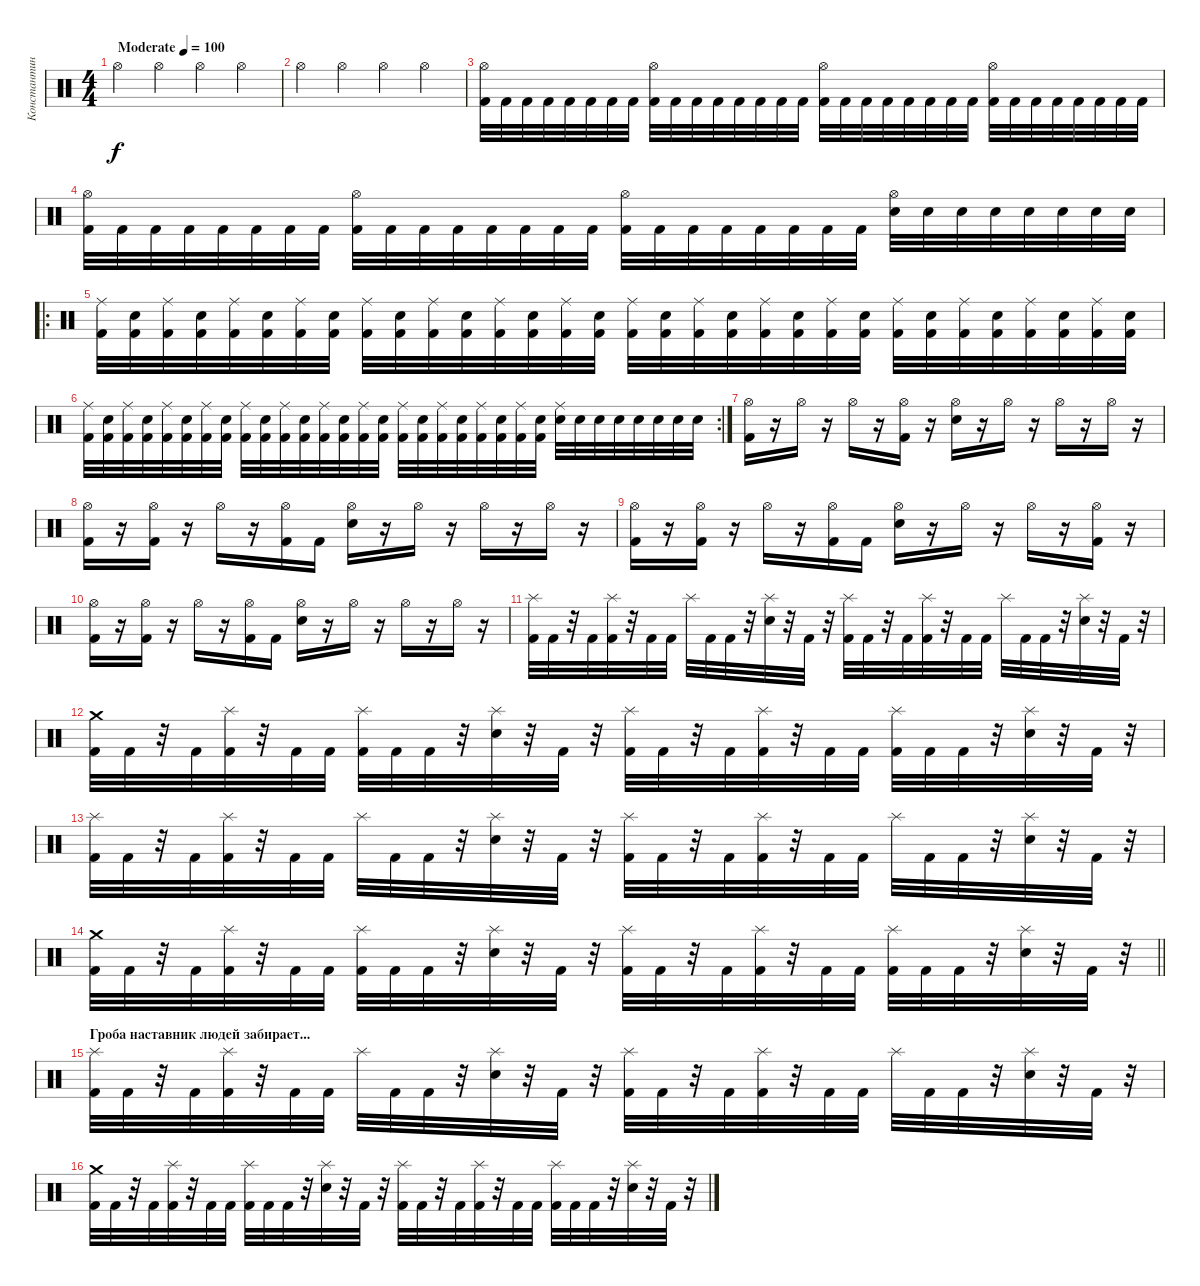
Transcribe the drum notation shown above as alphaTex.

\track ("Константин \"Салян\" Сальников" "Константин") {instrument percussion}
\staff {score}
\articulation defaults
\ts (4 4)
\tempo (100 "Moderate")
\clef neutral
\ks c "Hi-Hat (open)".4{dy f} "Hi-Hat (open)".4 "Hi-Hat (open)".4 "Hi-Hat (open)".4
|
"Hi-Hat (open)".4 "Hi-Hat (open)".4 "Hi-Hat (open)".4 "Hi-Hat (open)".4 |
("Hi-Hat (open)" "Kick (hit) 2").32 "Kick (hit) 2".32 "Kick (hit) 2".32 "Kick (hit) 2".32 "Kick (hit) 2".32 "Kick (hit) 2".32 "Kick (hit) 2".32 "Kick (hit) 2".32 ("Hi-Hat (open)" "Kick (hit) 2").32 "Kick (hit) 2".32 "Kick (hit) 2".32 "Kick (hit) 2".32 "Kick (hit) 2".32 "Kick (hit) 2".32 "Kick (hit) 2".32 "Kick (hit) 2".32 ("Hi-Hat (open)" "Kick (hit) 2").32 "Kick (hit) 2".32 "Kick (hit) 2".32 "Kick (hit) 2".32 "Kick (hit) 2".32 "Kick (hit) 2".32 "Kick (hit) 2".32 "Kick (hit) 2".32 ("Hi-Hat (open)" "Kick (hit) 2").32 "Kick (hit) 2".32 "Kick (hit) 2".32 "Kick (hit) 2".32 "Kick (hit) 2".32 "Kick (hit) 2".32 "Kick (hit) 2".32 "Kick (hit) 2".32 |
("Hi-Hat (open)" "Kick (hit) 2").32 "Kick (hit) 2".32 "Kick (hit) 2".32 "Kick (hit) 2".32 "Kick (hit) 2".32 "Kick (hit) 2".32 "Kick (hit) 2".32 "Kick (hit) 2".32 ("Hi-Hat (open)" "Kick (hit) 2").32 "Kick (hit) 2".32 "Kick (hit) 2".32 "Kick (hit) 2".32 "Kick (hit) 2".32 "Kick (hit) 2".32 "Kick (hit) 2".32 "Kick (hit) 2".32 ("Hi-Hat (open)" "Kick (hit) 2").32 "Kick (hit) 2".32 "Kick (hit) 2".32 "Kick (hit) 2".32 "Kick (hit) 2".32 "Kick (hit) 2".32 "Kick (hit) 2".32 "Kick (hit) 2".32 ("Hi-Hat (open)" "Electric Snare (hit)").32 "Electric Snare (hit)".32 "Electric Snare (hit)".32 "Electric Snare (hit)".32 "Electric Snare (hit)".32 "Electric Snare (hit)".32 "Electric Snare (hit)".32 "Electric Snare (hit)".32 |
\ro
("Ride (middle)" "Kick (hit) 2").32 ("Electric Snare (hit)" "Kick (hit) 2").32 ("Ride (middle)" "Kick (hit) 2").32 ("Electric Snare (hit)" "Kick (hit) 2").32 ("Ride (middle)" "Kick (hit) 2").32 ("Electric Snare (hit)" "Kick (hit) 2").32 ("Ride (middle)" "Kick (hit) 2").32 ("Electric Snare (hit)" "Kick (hit) 2").32 ("Ride (middle)" "Kick (hit) 2").32 ("Electric Snare (hit)" "Kick (hit) 2").32 ("Ride (middle)" "Kick (hit) 2").32 ("Electric Snare (hit)" "Kick (hit) 2").32 ("Ride (middle)" "Kick (hit) 2").32 ("Electric Snare (hit)" "Kick (hit) 2").32 ("Ride (middle)" "Kick (hit) 2").32 ("Electric Snare (hit)" "Kick (hit) 2").32 ("Ride (middle)" "Kick (hit) 2").32 ("Electric Snare (hit)" "Kick (hit) 2").32 ("Ride (middle)" "Kick (hit) 2").32 ("Electric Snare (hit)" "Kick (hit) 2").32 ("Ride (middle)" "Kick (hit) 2").32 ("Electric Snare (hit)" "Kick (hit) 2").32 ("Ride (middle)" "Kick (hit) 2").32 ("Electric Snare (hit)" "Kick (hit) 2").32 ("Ride (middle)" "Kick (hit) 2").32 ("Electric Snare (hit)" "Kick (hit) 2").32 ("Ride (middle)" "Kick (hit) 2").32 ("Electric Snare (hit)" "Kick (hit) 2").32 ("Ride (middle)" "Kick (hit) 2").32 ("Electric Snare (hit)" "Kick (hit) 2").32 ("Ride (middle)" "Kick (hit) 2").32 ("Electric Snare (hit)" "Kick (hit) 2").32 |
\rc 2
("Ride (middle)" "Kick (hit) 2").32 ("Electric Snare (hit)" "Kick (hit) 2").32 ("Ride (middle)" "Kick (hit) 2").32 ("Electric Snare (hit)" "Kick (hit) 2").32 ("Ride (middle)" "Kick (hit) 2").32 ("Electric Snare (hit)" "Kick (hit) 2").32 ("Ride (middle)" "Kick (hit) 2").32 ("Electric Snare (hit)" "Kick (hit) 2").32 ("Ride (middle)" "Kick (hit) 2").32 ("Electric Snare (hit)" "Kick (hit) 2").32 ("Ride (middle)" "Kick (hit) 2").32 ("Electric Snare (hit)" "Kick (hit) 2").32 ("Ride (middle)" "Kick (hit) 2").32 ("Electric Snare (hit)" "Kick (hit) 2").32 ("Ride (middle)" "Kick (hit) 2").32 ("Electric Snare (hit)" "Kick (hit) 2").32 ("Ride (middle)" "Kick (hit) 2").32 ("Electric Snare (hit)" "Kick (hit) 2").32 ("Ride (middle)" "Kick (hit) 2").32 ("Electric Snare (hit)" "Kick (hit) 2").32 ("Ride (middle)" "Kick (hit) 2").32 ("Electric Snare (hit)" "Kick (hit) 2").32 ("Ride (middle)" "Kick (hit) 2").32 ("Electric Snare (hit)" "Kick (hit) 2").32 ("Ride (middle)" "Electric Snare (hit)").32 "Electric Snare (hit)".32 "Electric Snare (hit)".32 "Electric Snare (hit)".32 "Electric Snare (hit)".32 "Electric Snare (hit)".32 "Electric Snare (hit)".32 "Electric Snare (hit)".32 |
("Hi-Hat (open)" "Kick (hit) 2").16 r.16 "Hi-Hat (open)".16 r.16 "Hi-Hat (open)".16 r.16 ("Hi-Hat (open)" "Kick (hit) 2").16 r.16 ("Hi-Hat (open)" "Electric Snare (hit)").16 r.16 "Hi-Hat (open)".16 r.16 "Hi-Hat (open)".16 r.16 "Hi-Hat (open)".16 r.16 |
("Hi-Hat (open)" "Kick (hit) 2").16 r.16 ("Hi-Hat (open)" "Kick (hit) 2").16 r.16 "Hi-Hat (open)".16 r.16 ("Hi-Hat (open)" "Kick (hit) 2").16 "Kick (hit) 2".16 ("Hi-Hat (open)" "Electric Snare (hit)").16 r.16 "Hi-Hat (open)".16 r.16 "Hi-Hat (open)".16 r.16 "Hi-Hat (open)".16 r.16 |
("Hi-Hat (open)" "Kick (hit) 2").16 r.16 ("Hi-Hat (open)" "Kick (hit) 2").16 r.16 "Hi-Hat (open)".16 r.16 ("Hi-Hat (open)" "Kick (hit) 2").16 "Kick (hit) 2".16 ("Hi-Hat (open)" "Electric Snare (hit)").16 r.16 "Hi-Hat (open)".16 r.16 "Hi-Hat (open)".16 r.16 ("Hi-Hat (open)" "Kick (hit) 2").16 r.16 |
("Hi-Hat (open)" "Kick (hit) 2").16 r.16 ("Hi-Hat (open)" "Kick (hit) 2").16 r.16 "Hi-Hat (open)".16 r.16 ("Hi-Hat (open)" "Kick (hit) 2").16 "Kick (hit) 2".16 ("Hi-Hat (open)" "Electric Snare (hit)").16 r.16 "Hi-Hat (open)".16 r.16 "Hi-Hat (open)".16 r.16 "Hi-Hat (open)".16 r.16 |
("Splash (hit)" "Kick (hit) 2").32 "Kick (hit) 2".32 r.32 "Kick (hit) 2".32 ("Splash (hit)" "Kick (hit) 2").32 r.32 "Kick (hit) 2".32 "Kick (hit) 2".32 "Splash (hit)".32 "Kick (hit) 2".32 "Kick (hit) 2".32 r.32 ("Splash (hit)" "Electric Snare (hit)").32 r.32 "Kick (hit) 2".32 r.32 ("Splash (hit)" "Kick (hit) 2").32 "Kick (hit) 2".32 r.32 "Kick (hit) 2".32 ("Splash (hit)" "Kick (hit) 2").32 r.32 "Kick (hit) 2".32 "Kick (hit) 2".32 "Splash (hit)".32 "Kick (hit) 2".32 "Kick (hit) 2".32 r.32 ("Splash (hit)" "Electric Snare (hit)").32 r.32 "Kick (hit) 2".32 r.32 |
("Crash medium (hit)" "Kick (hit) 2").32 "Kick (hit) 2".32 r.32 "Kick (hit) 2".32 ("Splash (hit)" "Kick (hit) 2").32 r.32 "Kick (hit) 2".32 "Kick (hit) 2".32 ("Splash (hit)" "Kick (hit) 2").32 "Kick (hit) 2".32 "Kick (hit) 2".32 r.32 ("Splash (hit)" "Electric Snare (hit)").32 r.32 "Kick (hit) 2".32 r.32 ("Splash (hit)" "Kick (hit) 2").32 "Kick (hit) 2".32 r.32 "Kick (hit) 2".32 ("Splash (hit)" "Kick (hit) 2").32 r.32 "Kick (hit) 2".32 "Kick (hit) 2".32 ("Splash (hit)" "Kick (hit) 2").32 "Kick (hit) 2".32 "Kick (hit) 2".32 r.32 ("Splash (hit)" "Electric Snare (hit)").32 r.32 "Kick (hit) 2".32 r.32 |
("Splash (hit)" "Kick (hit) 2").32 "Kick (hit) 2".32 r.32 "Kick (hit) 2".32 ("Splash (hit)" "Kick (hit) 2").32 r.32 "Kick (hit) 2".32 "Kick (hit) 2".32 "Splash (hit)".32 "Kick (hit) 2".32 "Kick (hit) 2".32 r.32 ("Splash (hit)" "Electric Snare (hit)").32 r.32 "Kick (hit) 2".32 r.32 ("Splash (hit)" "Kick (hit) 2").32 "Kick (hit) 2".32 r.32 "Kick (hit) 2".32 ("Splash (hit)" "Kick (hit) 2").32 r.32 "Kick (hit) 2".32 "Kick (hit) 2".32 "Splash (hit)".32 "Kick (hit) 2".32 "Kick (hit) 2".32 r.32 ("Splash (hit)" "Electric Snare (hit)").32 r.32 "Kick (hit) 2".32 r.32 |
\barLineRight lightlight
("Crash medium (hit)" "Kick (hit) 2").32 "Kick (hit) 2".32 r.32 "Kick (hit) 2".32 ("Splash (hit)" "Kick (hit) 2").32 r.32 "Kick (hit) 2".32 "Kick (hit) 2".32 ("Splash (hit)" "Kick (hit) 2").32 "Kick (hit) 2".32 "Kick (hit) 2".32 r.32 ("Splash (hit)" "Electric Snare (hit)").32 r.32 "Kick (hit) 2".32 r.32 ("Splash (hit)" "Kick (hit) 2").32 "Kick (hit) 2".32 r.32 "Kick (hit) 2".32 ("Splash (hit)" "Kick (hit) 2").32 r.32 "Kick (hit) 2".32 "Kick (hit) 2".32 ("Splash (hit)" "Kick (hit) 2").32 "Kick (hit) 2".32 "Kick (hit) 2".32 r.32 ("Splash (hit)" "Electric Snare (hit)").32 r.32 "Kick (hit) 2".32 r.32 |
\section ("" "Гроба наставник людей забирает...")
("Splash (hit)" "Kick (hit) 2").32 "Kick (hit) 2".32 r.32 "Kick (hit) 2".32 ("Splash (hit)" "Kick (hit) 2").32 r.32 "Kick (hit) 2".32 "Kick (hit) 2".32 "Splash (hit)".32 "Kick (hit) 2".32 "Kick (hit) 2".32 r.32 ("Splash (hit)" "Electric Snare (hit)").32 r.32 "Kick (hit) 2".32 r.32 ("Splash (hit)" "Kick (hit) 2").32 "Kick (hit) 2".32 r.32 "Kick (hit) 2".32 ("Splash (hit)" "Kick (hit) 2").32 r.32 "Kick (hit) 2".32 "Kick (hit) 2".32 "Splash (hit)".32 "Kick (hit) 2".32 "Kick (hit) 2".32 r.32 ("Splash (hit)" "Electric Snare (hit)").32 r.32 "Kick (hit) 2".32 r.32 |
("Crash medium (hit)" "Kick (hit) 2").32 "Kick (hit) 2".32 r.32 "Kick (hit) 2".32 ("Splash (hit)" "Kick (hit) 2").32 r.32 "Kick (hit) 2".32 "Kick (hit) 2".32 ("Splash (hit)" "Kick (hit) 2").32 "Kick (hit) 2".32 "Kick (hit) 2".32 r.32 ("Splash (hit)" "Electric Snare (hit)").32 r.32 "Kick (hit) 2".32 r.32 ("Splash (hit)" "Kick (hit) 2").32 "Kick (hit) 2".32 r.32 "Kick (hit) 2".32 ("Splash (hit)" "Kick (hit) 2").32 r.32 "Kick (hit) 2".32 "Kick (hit) 2".32 ("Splash (hit)" "Kick (hit) 2").32 "Kick (hit) 2".32 "Kick (hit) 2".32 r.32 ("Splash (hit)" "Electric Snare (hit)").32 r.32 "Kick (hit) 2".32 r.32
